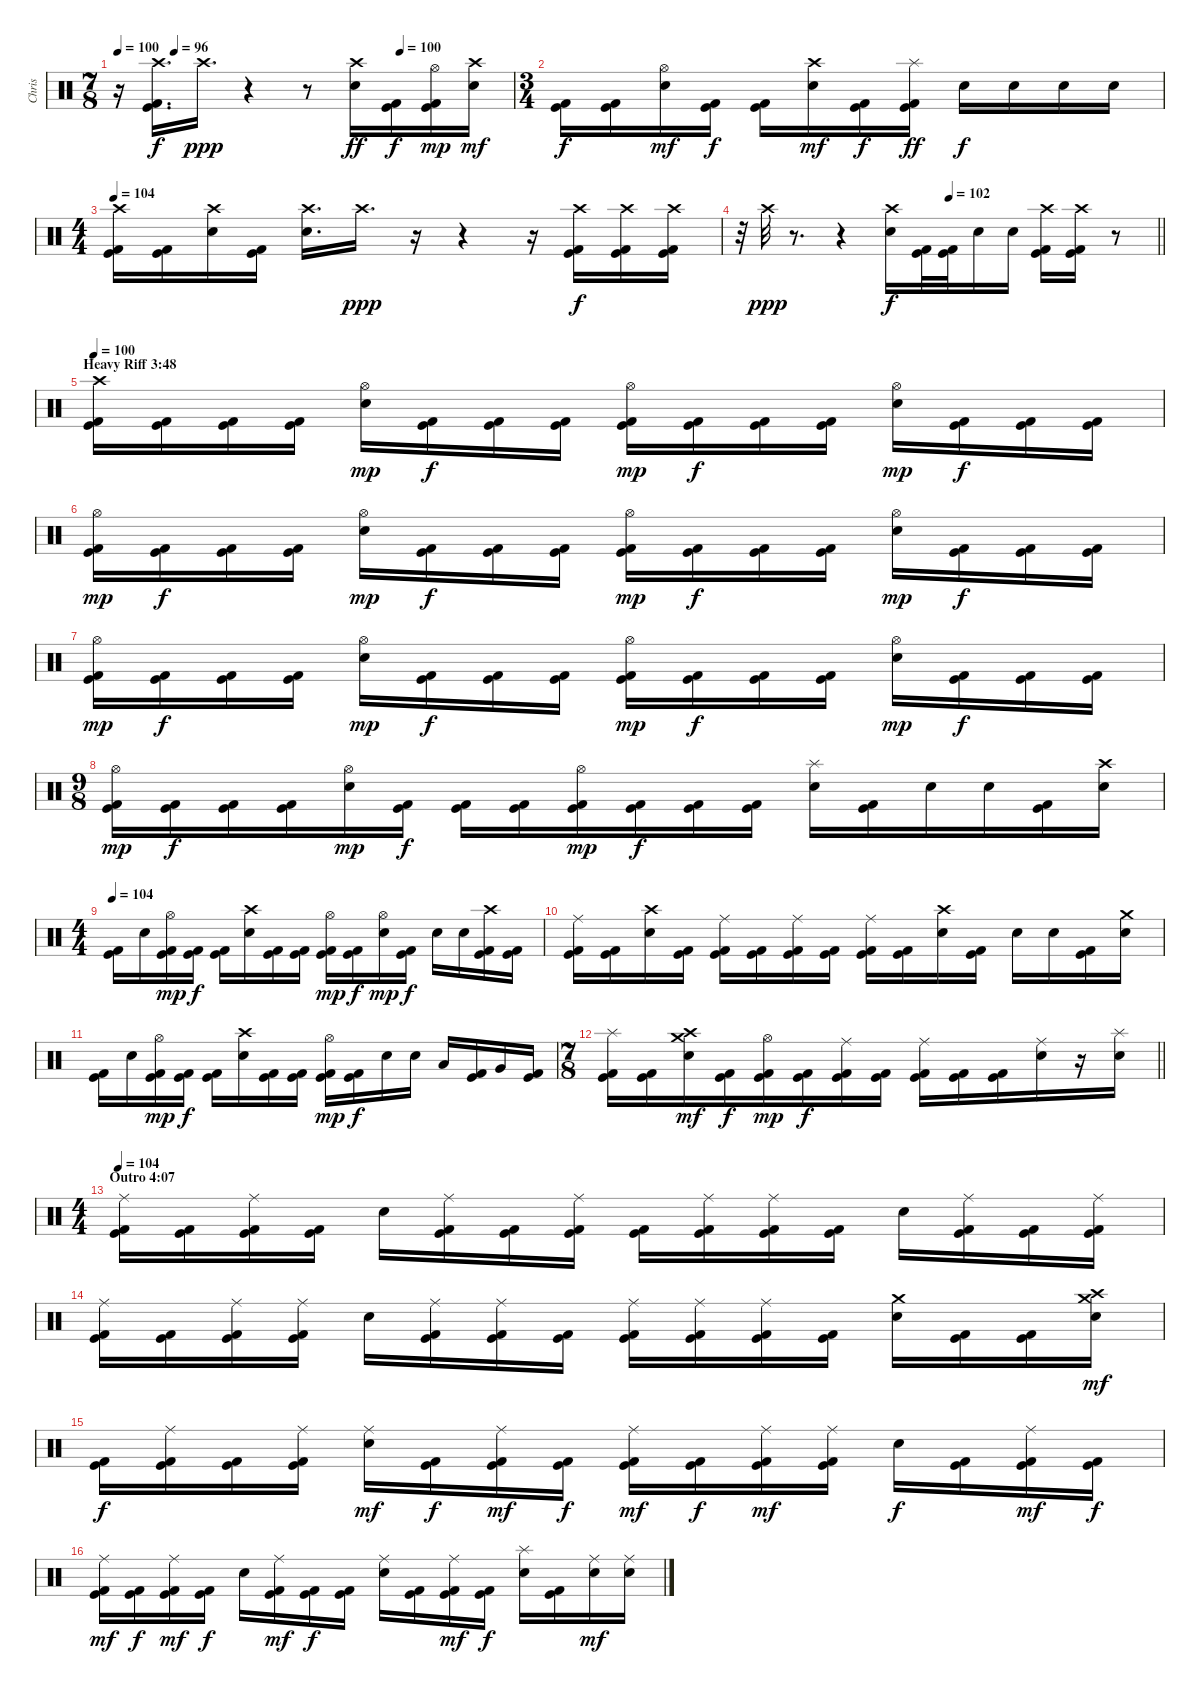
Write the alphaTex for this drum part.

\track ("Chris" "Chris") {instrument percussion}
\staff {score}
\articulation defaults
\ts (7 8)
\tempo 100
\tempo (96 0.14285714285714285)
\tempo (100 0.7142857142857143)
\clef neutral
\ks c
r.16{dy f} ("Crash high (hit)" "Kick (hit)" "Kick (hit) 2").16{d} "Crash high (hit)".16{d dy ppp} r.4 r.8 ("Crash high (hit)" "Electric Snare (hit)").16{dy ff} ("Kick (hit)" "Kick (hit) 2").16{dy f} ("Hi-Hat (open)" "Kick (hit)" "Kick (hit) 2").16{dy mp} ("Crash high (hit)" "Electric Snare (hit)").16{dy mf} |
\ts (3 4)
("Kick (hit)" "Kick (hit) 2").16{dy f} ("Kick (hit)" "Kick (hit) 2").16 ("Hi-Hat (open)" "Electric Snare (hit)").16{dy mf} ("Kick (hit)" "Kick (hit) 2").16{dy f} ("Kick (hit)" "Kick (hit) 2").16 ("Crash high (hit)" "Electric Snare (hit)").16{dy mf} ("Kick (hit)" "Kick (hit) 2").16{dy f} ("Splash (hit)" "Kick (hit)" "Kick (hit) 2").16{dy ff} "Electric Snare (hit)".16{dy f} "Electric Snare (hit)".16 "Electric Snare (hit)".16 "Electric Snare (hit)".16 |
\ts (4 4)
\tempo 104
("Crash high (hit)" "Kick (hit)" "Kick (hit) 2").16 ("Kick (hit)" "Kick (hit) 2").16 ("Crash high (hit)" "Electric Snare (hit)").16 ("Kick (hit)" "Kick (hit) 2").16 ("Crash high (hit)" "Electric Snare (hit)").16{d} "Crash high (hit)".16{d dy ppp} r.16 r.4 r.16 ("Crash high (hit)" "Kick (hit)" "Kick (hit) 2").16{dy f} ("Crash high (hit)" "Kick (hit)" "Kick (hit) 2").16 ("Crash high (hit)" "Kick (hit)" "Kick (hit) 2").16 |
\tempo (102 0.5)
\barLineRight lightlight
r.32 "Crash high (hit)".32{dy ppp} r.8{d} r.4{volume 16} ("Crash high (hit)" "Electric Snare (hit)").16{dy f} ("Kick (hit)" "Kick (hit) 2").32 ("Kick (hit)" "Kick (hit) 2").32 "Electric Snare (hit)".16 "Electric Snare (hit)".16 ("Crash high (hit)" "Kick (hit)" "Kick (hit) 2").16 ("Crash high (hit)" "Kick (hit)" "Kick (hit) 2").16 r.8 |
\section ("" "Heavy Riff 3:48")
\tempo 100
("Crash high (hit)" "Kick (hit)" "Kick (hit) 2").16 ("Kick (hit)" "Kick (hit) 2").16 ("Kick (hit)" "Kick (hit) 2").16 ("Kick (hit)" "Kick (hit) 2").16 ("Hi-Hat (open)" "Electric Snare (hit)").16{dy mp} ("Kick (hit)" "Kick (hit) 2").16{dy f} ("Kick (hit)" "Kick (hit) 2").16 ("Kick (hit)" "Kick (hit) 2").16 ("Hi-Hat (open)" "Kick (hit)" "Kick (hit) 2").16{dy mp} ("Kick (hit)" "Kick (hit) 2").16{dy f} ("Kick (hit)" "Kick (hit) 2").16 ("Kick (hit)" "Kick (hit) 2").16 ("Hi-Hat (open)" "Electric Snare (hit)").16{dy mp} ("Kick (hit)" "Kick (hit) 2").16{dy f} ("Kick (hit)" "Kick (hit) 2").16 ("Kick (hit)" "Kick (hit) 2").16 |
("Hi-Hat (open)" "Kick (hit)" "Kick (hit) 2").16{dy mp} ("Kick (hit)" "Kick (hit) 2").16{dy f} ("Kick (hit)" "Kick (hit) 2").16 ("Kick (hit)" "Kick (hit) 2").16 ("Hi-Hat (open)" "Electric Snare (hit)").16{dy mp} ("Kick (hit)" "Kick (hit) 2").16{dy f} ("Kick (hit)" "Kick (hit) 2").16 ("Kick (hit)" "Kick (hit) 2").16 ("Hi-Hat (open)" "Kick (hit)" "Kick (hit) 2").16{dy mp} ("Kick (hit)" "Kick (hit) 2").16{dy f} ("Kick (hit)" "Kick (hit) 2").16 ("Kick (hit)" "Kick (hit) 2").16 ("Hi-Hat (open)" "Electric Snare (hit)").16{dy mp} ("Kick (hit)" "Kick (hit) 2").16{dy f} ("Kick (hit)" "Kick (hit) 2").16 ("Kick (hit)" "Kick (hit) 2").16 |
("Hi-Hat (open)" "Kick (hit)" "Kick (hit) 2").16{dy mp} ("Kick (hit)" "Kick (hit) 2").16{dy f} ("Kick (hit)" "Kick (hit) 2").16 ("Kick (hit)" "Kick (hit) 2").16 ("Hi-Hat (open)" "Electric Snare (hit)").16{dy mp} ("Kick (hit)" "Kick (hit) 2").16{dy f} ("Kick (hit)" "Kick (hit) 2").16 ("Kick (hit)" "Kick (hit) 2").16 ("Hi-Hat (open)" "Kick (hit)" "Kick (hit) 2").16{dy mp} ("Kick (hit)" "Kick (hit) 2").16{dy f} ("Kick (hit)" "Kick (hit) 2").16 ("Kick (hit)" "Kick (hit) 2").16 ("Hi-Hat (open)" "Electric Snare (hit)").16{dy mp} ("Kick (hit)" "Kick (hit) 2").16{dy f} ("Kick (hit)" "Kick (hit) 2").16 ("Kick (hit)" "Kick (hit) 2").16 |
\ts (9 8)
("Hi-Hat (open)" "Kick (hit)" "Kick (hit) 2").16{dy mp} ("Kick (hit)" "Kick (hit) 2").16{dy f} ("Kick (hit)" "Kick (hit) 2").16 ("Kick (hit)" "Kick (hit) 2").16 ("Hi-Hat (open)" "Electric Snare (hit)").16{dy mp} ("Kick (hit)" "Kick (hit) 2").16{dy f} ("Kick (hit)" "Kick (hit) 2").16 ("Kick (hit)" "Kick (hit) 2").16 ("Hi-Hat (open)" "Kick (hit)" "Kick (hit) 2").16{dy mp} ("Kick (hit)" "Kick (hit) 2").16{dy f} ("Kick (hit)" "Kick (hit) 2").16 ("Kick (hit)" "Kick (hit) 2").16 ("Splash (hit)" "Electric Snare (hit)").16 ("Kick (hit)" "Kick (hit) 2").16 "Electric Snare (hit)".16 "Electric Snare (hit)".16 ("Kick (hit)" "Kick (hit) 2").16 ("Crash high (hit)" "Electric Snare (hit)").16 |
\ts (4 4)
\tempo 104
("Kick (hit)" "Kick (hit) 2").16 "Electric Snare (hit)".16 ("Hi-Hat (open)" "Kick (hit)" "Kick (hit) 2").16{dy mp} ("Kick (hit)" "Kick (hit) 2").16{dy f} ("Kick (hit)" "Kick (hit) 2").16 ("Crash high (hit)" "Electric Snare (hit)").16 ("Kick (hit)" "Kick (hit) 2").16 ("Kick (hit)" "Kick (hit) 2").16 ("Hi-Hat (open)" "Kick (hit)" "Kick (hit) 2").16{dy mp} ("Kick (hit)" "Kick (hit) 2").16{dy f} ("Hi-Hat (open)" "Electric Snare (hit)").16{dy mp} ("Kick (hit)" "Kick (hit) 2").16{dy f} "Electric Snare (hit)".16 "Electric Snare (hit)".16 ("Crash high (hit)" "Kick (hit)" "Kick (hit) 2").16 ("Kick (hit)" "Kick (hit) 2").16 |
("Ride (middle)" "Kick (hit)" "Kick (hit) 2").16 ("Kick (hit)" "Kick (hit) 2").16 ("Crash high (hit)" "Electric Snare (hit)").16 ("Kick (hit)" "Kick (hit) 2").16 ("Ride (middle)" "Kick (hit)" "Kick (hit) 2").16 ("Kick (hit)" "Kick (hit) 2").16 ("Ride (middle)" "Kick (hit)" "Kick (hit) 2").16 ("Kick (hit)" "Kick (hit) 2").16 ("Ride (middle)" "Kick (hit)" "Kick (hit) 2").16 ("Kick (hit)" "Kick (hit) 2").16 ("Crash high (hit)" "Electric Snare (hit)").16 ("Kick (hit)" "Kick (hit) 2").16 "Electric Snare (hit)".16 "Electric Snare (hit)".16 ("Kick (hit)" "Kick (hit) 2").16 ("Crash medium (hit)" "Electric Snare (hit)").16 |
("Kick (hit)" "Kick (hit) 2").16 "Electric Snare (hit)".16 ("Hi-Hat (open)" "Kick (hit)" "Kick (hit) 2").16{dy mp} ("Kick (hit)" "Kick (hit) 2").16{dy f} ("Kick (hit)" "Kick (hit) 2").16 ("Crash high (hit)" "Electric Snare (hit)").16 ("Kick (hit)" "Kick (hit) 2").16 ("Kick (hit)" "Kick (hit) 2").16 ("Hi-Hat (open)" "Kick (hit)" "Kick (hit) 2").16{dy mp} ("Kick (hit)" "Kick (hit) 2").16{dy f} "Electric Snare (hit)".16 "Electric Snare (hit)".16 "Low Tom (hit)".16 ("Kick (hit)" "Kick (hit) 2").16 "Very Low Tom (hit)".16 ("Kick (hit)" "Kick (hit) 2").16 |
\ts (7 8)
\barLineRight lightlight
("Splash (hit)" "Kick (hit)" "Kick (hit) 2").16 ("Kick (hit)" "Kick (hit) 2").16 ("Crash high (hit)" "Crash medium (hit)" "Electric Snare (hit)").16{dy mf} ("Kick (hit)" "Kick (hit) 2").16{dy f} ("Hi-Hat (open)" "Kick (hit)" "Kick (hit) 2").16{dy mp} ("Kick (hit)" "Kick (hit) 2").16{dy f} ("Ride (middle)" "Kick (hit)" "Kick (hit) 2").16 ("Kick (hit)" "Kick (hit) 2").16 ("Ride (middle)" "Kick (hit)" "Kick (hit) 2").16 ("Kick (hit)" "Kick (hit) 2").16 ("Kick (hit)" "Kick (hit) 2").16 ("Ride (middle)" "Electric Snare (hit)").16 r.16 ("Splash (hit)" "Electric Snare (hit)").16 |
\ts (4 4)
\section ("" "Outro 4:07")
\tempo 104
("Ride (middle)" "Kick (hit)" "Kick (hit) 2").16 ("Kick (hit)" "Kick (hit) 2").16 ("Ride (middle)" "Kick (hit)" "Kick (hit) 2").16 ("Kick (hit)" "Kick (hit) 2").16 "Electric Snare (hit)".16 ("Ride (middle)" "Kick (hit)" "Kick (hit) 2").16 ("Kick (hit)" "Kick (hit) 2").16 ("Ride (middle)" "Kick (hit)" "Kick (hit) 2").16 ("Kick (hit)" "Kick (hit) 2").16 ("Ride (middle)" "Kick (hit)" "Kick (hit) 2").16 ("Ride (middle)" "Kick (hit)" "Kick (hit) 2").16 ("Kick (hit)" "Kick (hit) 2").16 "Electric Snare (hit)".16 ("Ride (middle)" "Kick (hit)" "Kick (hit) 2").16 ("Kick (hit)" "Kick (hit) 2").16 ("Ride (middle)" "Kick (hit)" "Kick (hit) 2").16 |
("Ride (middle)" "Kick (hit)" "Kick (hit) 2").16 ("Kick (hit)" "Kick (hit) 2").16 ("Ride (middle)" "Kick (hit)" "Kick (hit) 2").16 ("Ride (middle)" "Kick (hit)" "Kick (hit) 2").16 "Electric Snare (hit)".16 ("Ride (middle)" "Kick (hit)" "Kick (hit) 2").16 ("Ride (middle)" "Kick (hit)" "Kick (hit) 2").16 ("Kick (hit)" "Kick (hit) 2").16 ("Ride (middle)" "Kick (hit)" "Kick (hit) 2").16 ("Ride (middle)" "Kick (hit)" "Kick (hit) 2").16 ("Ride (middle)" "Kick (hit)" "Kick (hit) 2").16 ("Kick (hit)" "Kick (hit) 2").16 ("Crash medium (hit)" "Electric Snare (hit)").16 ("Kick (hit)" "Kick (hit) 2").16 ("Kick (hit)" "Kick (hit) 2").16 ("Crash medium (hit)" "Crash high (hit)" "Electric Snare (hit)").16{dy mf} |
("Kick (hit)" "Kick (hit) 2").16{dy f} ("Ride (middle)" "Kick (hit)" "Kick (hit) 2").16 ("Kick (hit)" "Kick (hit) 2").16 ("Ride (middle)" "Kick (hit)" "Kick (hit) 2").16 ("Ride (middle)" "Electric Snare (hit)").16{dy mf} ("Kick (hit)" "Kick (hit) 2").16{dy f} ("Ride (middle)" "Kick (hit)" "Kick (hit) 2").16{dy mf} ("Kick (hit)" "Kick (hit) 2").16{dy f} ("Ride (middle)" "Kick (hit)" "Kick (hit) 2").16{dy mf} ("Kick (hit)" "Kick (hit) 2").16{dy f} ("Ride (middle)" "Kick (hit)" "Kick (hit) 2").16{dy mf} ("Ride (middle)" "Kick (hit)" "Kick (hit) 2").16 "Electric Snare (hit)".16{dy f} ("Kick (hit)" "Kick (hit) 2").16 ("Ride (middle)" "Kick (hit)" "Kick (hit) 2").16{dy mf} ("Kick (hit)" "Kick (hit) 2").16{dy f} |
("Ride (middle)" "Kick (hit)" "Kick (hit) 2").16{dy mf} ("Kick (hit)" "Kick (hit) 2").16{dy f} ("Ride (middle)" "Kick (hit)" "Kick (hit) 2").16{dy mf} ("Kick (hit)" "Kick (hit) 2").16{dy f} "Electric Snare (hit)".16 ("Ride (middle)" "Kick (hit)" "Kick (hit) 2").16{dy mf} ("Kick (hit)" "Kick (hit) 2").16{dy f} ("Kick (hit)" "Kick (hit) 2").16 ("Ride (middle)" "Electric Snare (hit)").16 ("Kick (hit)" "Kick (hit) 2").16 ("Ride (middle)" "Kick (hit)" "Kick (hit) 2").16{dy mf} ("Kick (hit)" "Kick (hit) 2").16{dy f} ("Splash (hit)" "Electric Snare (hit)").16 ("Kick (hit)" "Kick (hit) 2").16 ("Ride (middle)" "Electric Snare (hit)").16{dy mf} ("Ride (middle)" "Electric Snare (hit)").16
